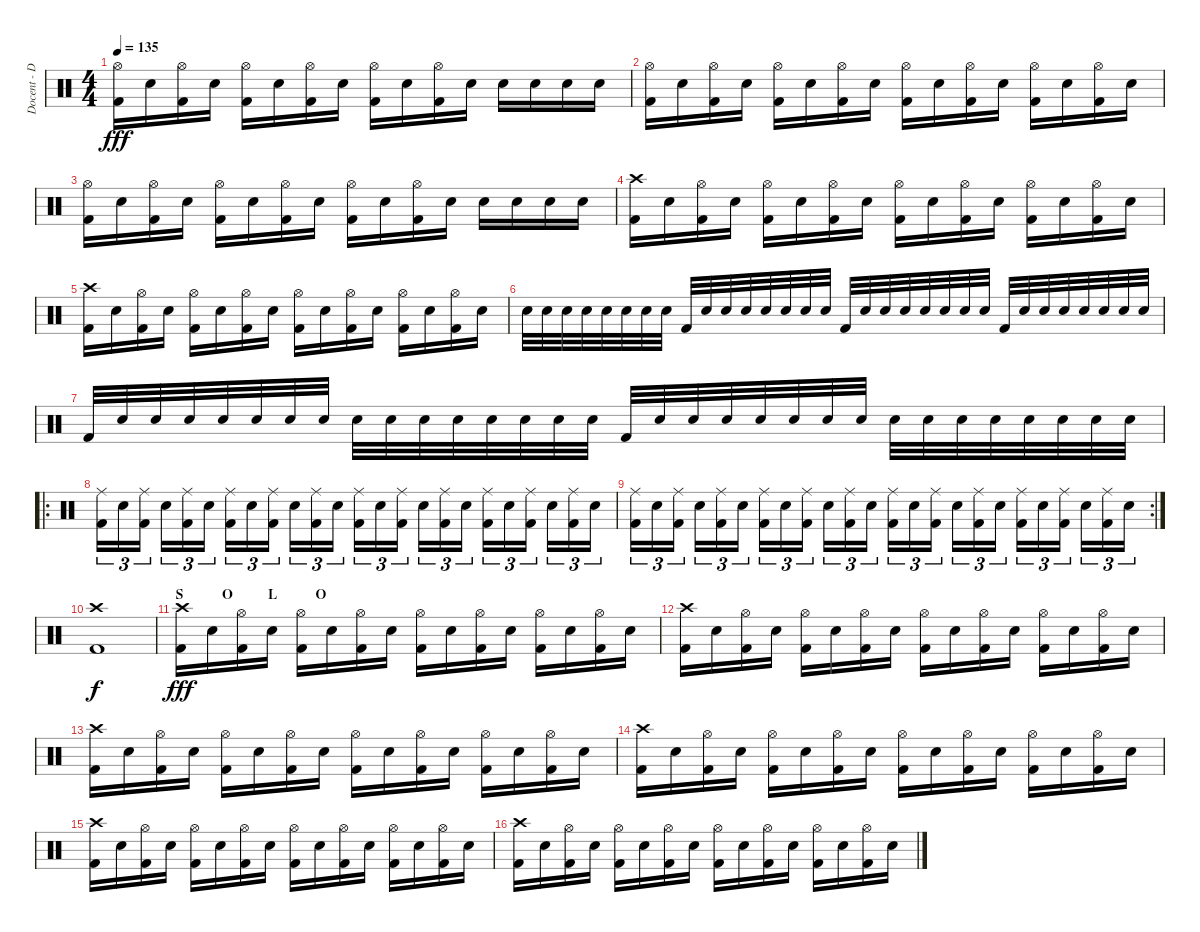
\track ("Docent - Drums" "Docent - D") {instrument percussion}
\staff {score}
\articulation defaults
\ts (4 4)
\tempo 135
\clef neutral
\ks c
("Hi-Hat (open)" "Kick (hit) 2").16{dy fff} "Electric Snare (hit)".16 ("Hi-Hat (open)" "Kick (hit) 2").16 "Electric Snare (hit)".16 ("Hi-Hat (open)" "Kick (hit) 2").16 "Electric Snare (hit)".16 ("Hi-Hat (open)" "Kick (hit) 2").16 "Electric Snare (hit)".16 ("Hi-Hat (open)" "Kick (hit) 2").16 "Electric Snare (hit)".16 ("Hi-Hat (open)" "Kick (hit) 2").16 "Electric Snare (hit)".16 "Electric Snare (hit)".16 "Electric Snare (hit)".16 "Electric Snare (hit)".16 "Electric Snare (hit)".16 |
("Hi-Hat (open)" "Kick (hit) 2").16 "Electric Snare (hit)".16 ("Hi-Hat (open)" "Kick (hit) 2").16 "Electric Snare (hit)".16 ("Hi-Hat (open)" "Kick (hit) 2").16 "Electric Snare (hit)".16 ("Hi-Hat (open)" "Kick (hit) 2").16 "Electric Snare (hit)".16 ("Hi-Hat (open)" "Kick (hit) 2").16 "Electric Snare (hit)".16 ("Hi-Hat (open)" "Kick (hit) 2").16 "Electric Snare (hit)".16 ("Hi-Hat (open)" "Kick (hit) 2").16 "Electric Snare (hit)".16 ("Hi-Hat (open)" "Kick (hit) 2").16 "Electric Snare (hit)".16 |
("Hi-Hat (open)" "Kick (hit) 2").16 "Electric Snare (hit)".16 ("Hi-Hat (open)" "Kick (hit) 2").16 "Electric Snare (hit)".16 ("Hi-Hat (open)" "Kick (hit) 2").16 "Electric Snare (hit)".16 ("Hi-Hat (open)" "Kick (hit) 2").16 "Electric Snare (hit)".16 ("Hi-Hat (open)" "Kick (hit) 2").16 "Electric Snare (hit)".16 ("Hi-Hat (open)" "Kick (hit) 2").16 "Electric Snare (hit)".16 "Electric Snare (hit)".16 "Electric Snare (hit)".16 "Electric Snare (hit)".16 "Electric Snare (hit)".16 |
("Crash high (hit)" "Kick (hit) 2").16 "Electric Snare (hit)".16 ("Hi-Hat (open)" "Kick (hit) 2").16 "Electric Snare (hit)".16 ("Hi-Hat (open)" "Kick (hit) 2").16 "Electric Snare (hit)".16 ("Hi-Hat (open)" "Kick (hit) 2").16 "Electric Snare (hit)".16 ("Hi-Hat (open)" "Kick (hit) 2").16 "Electric Snare (hit)".16 ("Hi-Hat (open)" "Kick (hit) 2").16 "Electric Snare (hit)".16 ("Hi-Hat (open)" "Kick (hit) 2").16 "Electric Snare (hit)".16 ("Hi-Hat (open)" "Kick (hit) 2").16 "Electric Snare (hit)".16 |
("Crash high (hit)" "Kick (hit) 2").16 "Electric Snare (hit)".16 ("Hi-Hat (open)" "Kick (hit) 2").16 "Electric Snare (hit)".16 ("Hi-Hat (open)" "Kick (hit) 2").16 "Electric Snare (hit)".16 ("Hi-Hat (open)" "Kick (hit) 2").16 "Electric Snare (hit)".16 ("Hi-Hat (open)" "Kick (hit) 2").16 "Electric Snare (hit)".16 ("Hi-Hat (open)" "Kick (hit) 2").16 "Electric Snare (hit)".16 ("Hi-Hat (open)" "Kick (hit) 2").16 "Electric Snare (hit)".16 ("Hi-Hat (open)" "Kick (hit) 2").16 "Electric Snare (hit)".16 |
"Electric Snare (hit)".32 "Electric Snare (hit)".32 "Electric Snare (hit)".32 "Electric Snare (hit)".32 "Electric Snare (hit)".32 "Electric Snare (hit)".32 "Electric Snare (hit)".32 "Electric Snare (hit)".32 "Kick (hit) 2".32 "Electric Snare (hit)".32 "Electric Snare (hit)".32 "Electric Snare (hit)".32 "Electric Snare (hit)".32 "Electric Snare (hit)".32 "Electric Snare (hit)".32 "Electric Snare (hit)".32 "Kick (hit) 2".32 "Electric Snare (hit)".32 "Electric Snare (hit)".32 "Electric Snare (hit)".32 "Electric Snare (hit)".32 "Electric Snare (hit)".32 "Electric Snare (hit)".32 "Electric Snare (hit)".32 "Kick (hit) 2".32 "Electric Snare (hit)".32 "Electric Snare (hit)".32 "Electric Snare (hit)".32 "Electric Snare (hit)".32 "Electric Snare (hit)".32 "Electric Snare (hit)".32 "Electric Snare (hit)".32 |
"Kick (hit) 2".32 "Electric Snare (hit)".32 "Electric Snare (hit)".32 "Electric Snare (hit)".32 "Electric Snare (hit)".32 "Electric Snare (hit)".32 "Electric Snare (hit)".32 "Electric Snare (hit)".32 "Electric Snare (hit)".32 "Electric Snare (hit)".32 "Electric Snare (hit)".32 "Electric Snare (hit)".32 "Electric Snare (hit)".32 "Electric Snare (hit)".32 "Electric Snare (hit)".32 "Electric Snare (hit)".32 "Kick (hit) 2".32 "Electric Snare (hit)".32 "Electric Snare (hit)".32 "Electric Snare (hit)".32 "Electric Snare (hit)".32 "Electric Snare (hit)".32 "Electric Snare (hit)".32 "Electric Snare (hit)".32 "Electric Snare (hit)".32 "Electric Snare (hit)".32 "Electric Snare (hit)".32 "Electric Snare (hit)".32 "Electric Snare (hit)".32 "Electric Snare (hit)".32 "Electric Snare (hit)".32 "Electric Snare (hit)".32 |
\ro
("Ride (middle)" "Kick (hit) 2").16{tu (3 2)} "Electric Snare (hit)".16{tu (3 2)} ("Ride (middle)" "Kick (hit) 2").16{tu (3 2)} "Electric Snare (hit)".16{tu (3 2)} ("Ride (middle)" "Kick (hit) 2").16{tu (3 2)} "Electric Snare (hit)".16{tu (3 2)} ("Ride (middle)" "Kick (hit) 2").16{tu (3 2)} "Electric Snare (hit)".16{tu (3 2)} ("Ride (middle)" "Kick (hit) 2").16{tu (3 2)} "Electric Snare (hit)".16{tu (3 2)} ("Ride (middle)" "Kick (hit) 2").16{tu (3 2)} "Electric Snare (hit)".16{tu (3 2)} ("Ride (middle)" "Kick (hit) 2").16{tu (3 2)} "Electric Snare (hit)".16{tu (3 2)} ("Ride (middle)" "Kick (hit) 2").16{tu (3 2)} "Electric Snare (hit)".16{tu (3 2)} ("Ride (middle)" "Kick (hit) 2").16{tu (3 2)} "Electric Snare (hit)".16{tu (3 2)} ("Ride (middle)" "Kick (hit) 2").16{tu (3 2)} "Electric Snare (hit)".16{tu (3 2)} ("Ride (middle)" "Kick (hit) 2").16{tu (3 2)} "Electric Snare (hit)".16{tu (3 2)} ("Ride (middle)" "Kick (hit) 2").16{tu (3 2)} "Electric Snare (hit)".16{tu (3 2)} |
\rc 2
("Ride (middle)" "Kick (hit) 2").16{tu (3 2)} "Electric Snare (hit)".16{tu (3 2)} ("Ride (middle)" "Kick (hit) 2").16{tu (3 2)} "Electric Snare (hit)".16{tu (3 2)} ("Ride (middle)" "Kick (hit) 2").16{tu (3 2)} "Electric Snare (hit)".16{tu (3 2)} ("Ride (middle)" "Kick (hit) 2").16{tu (3 2)} "Electric Snare (hit)".16{tu (3 2)} ("Ride (middle)" "Kick (hit) 2").16{tu (3 2)} "Electric Snare (hit)".16{tu (3 2)} ("Ride (middle)" "Kick (hit) 2").16{tu (3 2)} "Electric Snare (hit)".16{tu (3 2)} ("Ride (middle)" "Kick (hit) 2").16{tu (3 2)} "Electric Snare (hit)".16{tu (3 2)} ("Ride (middle)" "Kick (hit) 2").16{tu (3 2)} "Electric Snare (hit)".16{tu (3 2)} ("Ride (middle)" "Kick (hit) 2").16{tu (3 2)} "Electric Snare (hit)".16{tu (3 2)} ("Ride (middle)" "Kick (hit) 2").16{tu (3 2)} "Electric Snare (hit)".16{tu (3 2)} ("Ride (middle)" "Kick (hit) 2").16{tu (3 2)} "Electric Snare (hit)".16{tu (3 2)} ("Ride (middle)" "Kick (hit) 2").16{tu (3 2)} "Electric Snare (hit)".16{tu (3 2)} |
("Crash high (hit)" "Kick (hit) 2").1{dy f} |
\section ("" "S           O          L           O")
("Crash high (hit)" "Kick (hit) 2").16{dy fff} "Electric Snare (hit)".16 ("Hi-Hat (open)" "Kick (hit) 2").16 "Electric Snare (hit)".16 ("Hi-Hat (open)" "Kick (hit) 2").16 "Electric Snare (hit)".16 ("Hi-Hat (open)" "Kick (hit) 2").16 "Electric Snare (hit)".16 ("Hi-Hat (open)" "Kick (hit) 2").16 "Electric Snare (hit)".16 ("Hi-Hat (open)" "Kick (hit) 2").16 "Electric Snare (hit)".16 ("Hi-Hat (open)" "Kick (hit) 2").16 "Electric Snare (hit)".16 ("Hi-Hat (open)" "Kick (hit) 2").16 "Electric Snare (hit)".16 |
("Crash high (hit)" "Kick (hit) 2").16 "Electric Snare (hit)".16 ("Hi-Hat (open)" "Kick (hit) 2").16 "Electric Snare (hit)".16 ("Hi-Hat (open)" "Kick (hit) 2").16 "Electric Snare (hit)".16 ("Hi-Hat (open)" "Kick (hit) 2").16 "Electric Snare (hit)".16 ("Hi-Hat (open)" "Kick (hit) 2").16 "Electric Snare (hit)".16 ("Hi-Hat (open)" "Kick (hit) 2").16 "Electric Snare (hit)".16 ("Hi-Hat (open)" "Kick (hit) 2").16 "Electric Snare (hit)".16 ("Hi-Hat (open)" "Kick (hit) 2").16 "Electric Snare (hit)".16 |
("Crash high (hit)" "Kick (hit) 2").16 "Electric Snare (hit)".16 ("Hi-Hat (open)" "Kick (hit) 2").16 "Electric Snare (hit)".16 ("Hi-Hat (open)" "Kick (hit) 2").16 "Electric Snare (hit)".16 ("Hi-Hat (open)" "Kick (hit) 2").16 "Electric Snare (hit)".16 ("Hi-Hat (open)" "Kick (hit) 2").16 "Electric Snare (hit)".16 ("Hi-Hat (open)" "Kick (hit) 2").16 "Electric Snare (hit)".16 ("Hi-Hat (open)" "Kick (hit) 2").16 "Electric Snare (hit)".16 ("Hi-Hat (open)" "Kick (hit) 2").16 "Electric Snare (hit)".16 |
("Crash high (hit)" "Kick (hit) 2").16 "Electric Snare (hit)".16 ("Hi-Hat (open)" "Kick (hit) 2").16 "Electric Snare (hit)".16 ("Hi-Hat (open)" "Kick (hit) 2").16 "Electric Snare (hit)".16 ("Hi-Hat (open)" "Kick (hit) 2").16 "Electric Snare (hit)".16 ("Hi-Hat (open)" "Kick (hit) 2").16 "Electric Snare (hit)".16 ("Hi-Hat (open)" "Kick (hit) 2").16 "Electric Snare (hit)".16 ("Hi-Hat (open)" "Kick (hit) 2").16 "Electric Snare (hit)".16 ("Hi-Hat (open)" "Kick (hit) 2").16 "Electric Snare (hit)".16 |
("Crash high (hit)" "Kick (hit) 2").16 "Electric Snare (hit)".16 ("Hi-Hat (open)" "Kick (hit) 2").16 "Electric Snare (hit)".16 ("Hi-Hat (open)" "Kick (hit) 2").16 "Electric Snare (hit)".16 ("Hi-Hat (open)" "Kick (hit) 2").16 "Electric Snare (hit)".16 ("Hi-Hat (open)" "Kick (hit) 2").16 "Electric Snare (hit)".16 ("Hi-Hat (open)" "Kick (hit) 2").16 "Electric Snare (hit)".16 ("Hi-Hat (open)" "Kick (hit) 2").16 "Electric Snare (hit)".16 ("Hi-Hat (open)" "Kick (hit) 2").16 "Electric Snare (hit)".16 |
("Crash high (hit)" "Kick (hit) 2").16 "Electric Snare (hit)".16 ("Hi-Hat (open)" "Kick (hit) 2").16 "Electric Snare (hit)".16 ("Hi-Hat (open)" "Kick (hit) 2").16 "Electric Snare (hit)".16 ("Hi-Hat (open)" "Kick (hit) 2").16 "Electric Snare (hit)".16 ("Hi-Hat (open)" "Kick (hit) 2").16 "Electric Snare (hit)".16 ("Hi-Hat (open)" "Kick (hit) 2").16 "Electric Snare (hit)".16 ("Hi-Hat (open)" "Kick (hit) 2").16 "Electric Snare (hit)".16 ("Hi-Hat (open)" "Kick (hit) 2").16 "Electric Snare (hit)".16
